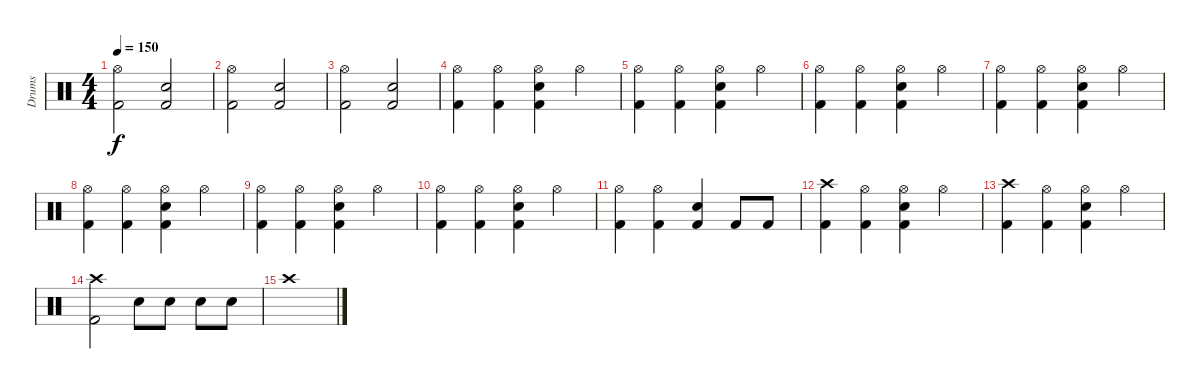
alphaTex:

\track ("Drums" "Drums") {instrument percussion}
\staff {score}
\articulation defaults
\ts (4 4)
\tempo 150
\clef neutral
\ks c
("Hi-Hat (open)" "Kick (hit) 2").2{dy f} ("Electric Snare (hit)" "Kick (hit) 2").2 |
("Hi-Hat (open)" "Kick (hit) 2").2 ("Electric Snare (hit)" "Kick (hit) 2").2 |
("Hi-Hat (open)" "Kick (hit) 2").2 ("Electric Snare (hit)" "Kick (hit) 2").2 |
("Hi-Hat (open)" "Kick (hit) 2").4{volume 11} ("Hi-Hat (open)" "Kick (hit) 2").4 ("Hi-Hat (open)" "Electric Snare (hit)" "Kick (hit) 2").4 "Hi-Hat (open)".4 |
("Hi-Hat (open)" "Kick (hit) 2").4 ("Hi-Hat (open)" "Kick (hit) 2").4 ("Hi-Hat (open)" "Electric Snare (hit)" "Kick (hit) 2").4 "Hi-Hat (open)".4 |
("Hi-Hat (open)" "Kick (hit) 2").4 ("Hi-Hat (open)" "Kick (hit) 2").4 ("Hi-Hat (open)" "Electric Snare (hit)" "Kick (hit) 2").4 "Hi-Hat (open)".4 |
("Hi-Hat (open)" "Kick (hit) 2").4 ("Hi-Hat (open)" "Kick (hit) 2").4 ("Hi-Hat (open)" "Electric Snare (hit)" "Kick (hit) 2").4 "Hi-Hat (open)".4 |
("Hi-Hat (open)" "Kick (hit) 2").4 ("Hi-Hat (open)" "Kick (hit) 2").4 ("Hi-Hat (open)" "Electric Snare (hit)" "Kick (hit) 2").4 "Hi-Hat (open)".4 |
("Hi-Hat (open)" "Kick (hit) 2").4 ("Hi-Hat (open)" "Kick (hit) 2").4 ("Hi-Hat (open)" "Electric Snare (hit)" "Kick (hit) 2").4 "Hi-Hat (open)".4 |
("Hi-Hat (open)" "Kick (hit) 2").4 ("Hi-Hat (open)" "Kick (hit) 2").4 ("Hi-Hat (open)" "Electric Snare (hit)" "Kick (hit) 2").4 "Hi-Hat (open)".4 |
("Hi-Hat (open)" "Kick (hit) 2").4 ("Hi-Hat (open)" "Kick (hit) 2").4 ("Electric Snare (hit)" "Kick (hit) 2").4 "Kick (hit) 2".8 "Kick (hit) 2".8 |
("Crash high (hit)" "Kick (hit) 2").4 ("Hi-Hat (open)" "Kick (hit) 2").4 ("Hi-Hat (open)" "Electric Snare (hit)" "Kick (hit) 2").4 "Hi-Hat (open)".4 |
("Crash high (hit)" "Kick (hit) 2").4 ("Hi-Hat (open)" "Kick (hit) 2").4 ("Hi-Hat (open)" "Electric Snare (hit)" "Kick (hit) 2").4 "Hi-Hat (open)".4 |
("Crash high (hit)" "Kick (hit) 2").2 "Electric Snare (hit)".8 "Electric Snare (hit)".8 "Snare (hit) 2".8 "Snare (hit) 2".8 |
"Crash high (hit)".1
